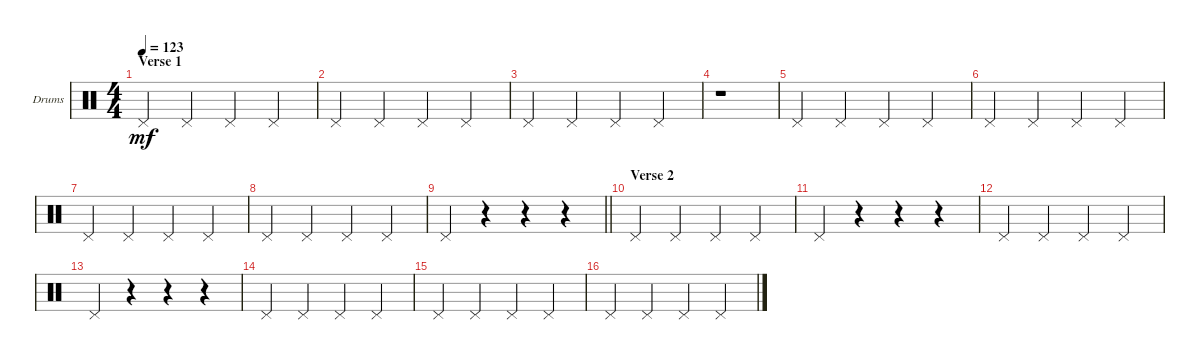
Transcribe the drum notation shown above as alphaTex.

\defaultSystemsLayout 4
\bracketExtendMode groupsimilarinstruments
\firstSystemTrackNameOrientation horizontal
\otherSystemsTrackNameOrientation horizontal
\track ("Pedal Hithat" "Drums") {instrument percussion}
\staff {score}
\articulation defaults
\ts (4 4)
\section ("" "Verse 1")
\tempo 123
\clef neutral
\scale
0.333333
\ks c "Pedal Hi-Hat (hit)".4{dy mf} "Pedal Hi-Hat (hit)".4 "Pedal Hi-Hat (hit)".4 "Pedal Hi-Hat (hit)".4
|
\scale
0.333333 "Pedal Hi-Hat (hit)".4 "Pedal Hi-Hat (hit)".4 "Pedal Hi-Hat (hit)".4 "Pedal Hi-Hat (hit)".4 |
\scale
0.333333 "Pedal Hi-Hat (hit)".4 "Pedal Hi-Hat (hit)".4 "Pedal Hi-Hat (hit)".4 "Pedal Hi-Hat (hit)".4 |
\scale
0.333333 r.1 |
\scale
0.333333 "Pedal Hi-Hat (hit)".4 "Pedal Hi-Hat (hit)".4 "Pedal Hi-Hat (hit)".4 "Pedal Hi-Hat (hit)".4 |
\scale
0.333333 "Pedal Hi-Hat (hit)".4 "Pedal Hi-Hat (hit)".4 "Pedal Hi-Hat (hit)".4 "Pedal Hi-Hat (hit)".4 |
\scale
0.333333 "Pedal Hi-Hat (hit)".4 "Pedal Hi-Hat (hit)".4 "Pedal Hi-Hat (hit)".4 "Pedal Hi-Hat (hit)".4 |
\scale
0.333333 "Pedal Hi-Hat (hit)".4 "Pedal Hi-Hat (hit)".4 "Pedal Hi-Hat (hit)".4 "Pedal Hi-Hat (hit)".4 |
\scale
0.333333
\barLineRight lightlight "Pedal Hi-Hat (hit)".4
r.4 r.4 r.4 |
\section ("" "Verse 2")
\scale
0.333333 "Pedal Hi-Hat (hit)".4 "Pedal Hi-Hat (hit)".4 "Pedal Hi-Hat (hit)".4 "Pedal Hi-Hat (hit)".4 |
"Pedal Hi-Hat (hit)".4 r.4 r.4 r.4 |
"Pedal Hi-Hat (hit)".4 "Pedal Hi-Hat (hit)".4 "Pedal Hi-Hat (hit)".4 "Pedal Hi-Hat (hit)".4 |
"Pedal Hi-Hat (hit)".4 r.4 r.4 r.4 |
"Pedal Hi-Hat (hit)".4 "Pedal Hi-Hat (hit)".4 "Pedal Hi-Hat (hit)".4 "Pedal Hi-Hat (hit)".4 |
"Pedal Hi-Hat (hit)".4 "Pedal Hi-Hat (hit)".4 "Pedal Hi-Hat (hit)".4 "Pedal Hi-Hat (hit)".4 |
"Pedal Hi-Hat (hit)".4 "Pedal Hi-Hat (hit)".4 "Pedal Hi-Hat (hit)".4 "Pedal Hi-Hat (hit)".4
